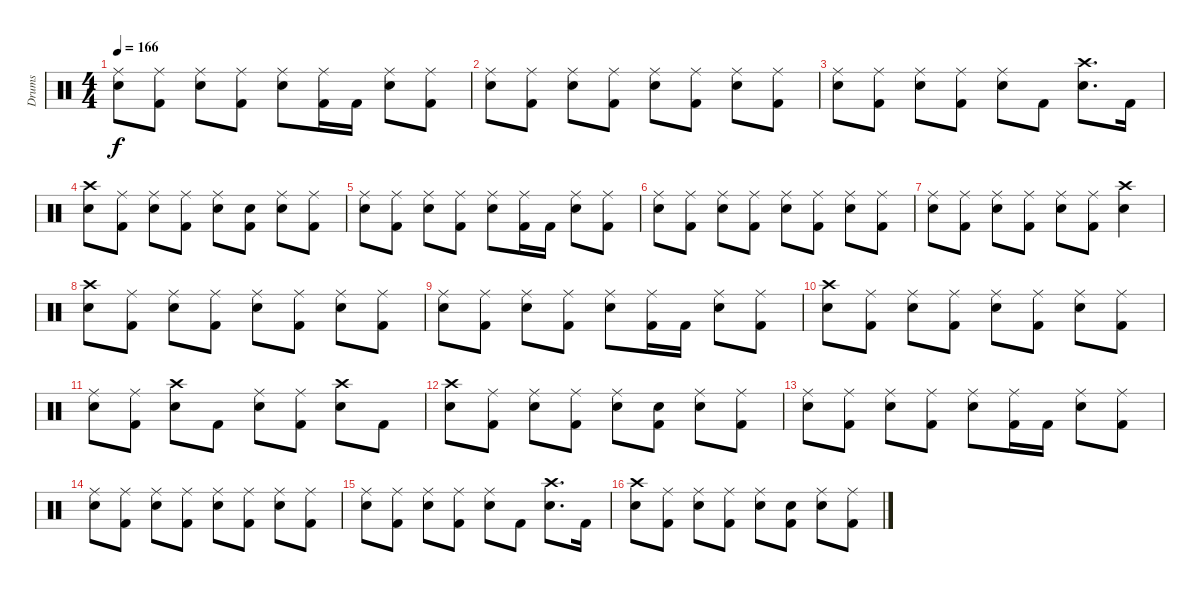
\track ("Drums" "Drums") {instrument percussion}
\staff {score}
\articulation defaults
\ts (4 4)
\tempo 166
\clef neutral
\ks c
("Ride (middle)" "Snare (hit) 2").8{dy f} ("Ride (middle)" "Kick (hit) 2").8 ("Ride (middle)" "Snare (hit) 2").8 ("Ride (middle)" "Kick (hit) 2").8 ("Ride (middle)" "Snare (hit) 2").8 ("Ride (middle)" "Kick (hit) 2").16 "Kick (hit) 2".16 ("Ride (middle)" "Snare (hit) 2").8 ("Ride (middle)" "Kick (hit) 2").8 |
("Ride (middle)" "Snare (hit) 2").8 ("Ride (middle)" "Kick (hit) 2").8 ("Ride (middle)" "Snare (hit) 2").8 ("Ride (middle)" "Kick (hit) 2").8 ("Ride (middle)" "Snare (hit) 2").8 ("Ride (middle)" "Kick (hit) 2").8 ("Ride (middle)" "Snare (hit) 2").8 ("Ride (middle)" "Kick (hit) 2").8 |
("Ride (middle)" "Snare (hit) 2").8 ("Ride (middle)" "Kick (hit) 2").8 ("Ride (middle)" "Snare (hit) 2").8 ("Ride (middle)" "Kick (hit) 2").8 ("Ride (middle)" "Snare (hit) 2").8 "Kick (hit) 2".8 ("Crash high (hit)" "Snare (hit) 2").8{d} "Kick (hit) 2".16 |
("Crash high (hit)" "Snare (hit) 2").8 ("Ride (middle)" "Kick (hit) 2").8 ("Ride (middle)" "Snare (hit) 2").8 ("Ride (middle)" "Kick (hit) 2").8 ("Ride (middle)" "Snare (hit) 2").8 ("Snare (hit)" "Kick (hit) 2").8 ("Ride (middle)" "Snare (hit) 2").8 ("Ride (middle)" "Kick (hit) 2").8 |
("Ride (middle)" "Snare (hit) 2").8 ("Ride (middle)" "Kick (hit) 2").8 ("Ride (middle)" "Snare (hit) 2").8 ("Ride (middle)" "Kick (hit) 2").8 ("Ride (middle)" "Snare (hit) 2").8 ("Ride (middle)" "Kick (hit) 2").16 "Kick (hit) 2".16 ("Ride (middle)" "Snare (hit) 2").8 ("Ride (middle)" "Kick (hit) 2").8 |
("Ride (middle)" "Snare (hit) 2").8 ("Ride (middle)" "Kick (hit) 2").8 ("Ride (middle)" "Snare (hit) 2").8 ("Ride (middle)" "Kick (hit) 2").8 ("Ride (middle)" "Snare (hit) 2").8 ("Ride (middle)" "Kick (hit) 2").8 ("Ride (middle)" "Snare (hit) 2").8 ("Ride (middle)" "Kick (hit) 2").8 |
("Ride (middle)" "Snare (hit) 2").8 ("Ride (middle)" "Kick (hit) 2").8 ("Ride (middle)" "Snare (hit) 2").8 ("Ride (middle)" "Kick (hit) 2").8 ("Ride (middle)" "Snare (hit) 2").8 ("Ride (middle)" "Kick (hit) 2").8 ("Crash high (hit)" "Snare (hit) 2").4 |
("Crash high (hit)" "Snare (hit) 2").8 ("Ride (middle)" "Kick (hit) 2").8 ("Ride (middle)" "Snare (hit) 2").8 ("Ride (middle)" "Kick (hit) 2").8 ("Ride (middle)" "Snare (hit) 2").8 ("Ride (middle)" "Kick (hit) 2").8 ("Ride (middle)" "Snare (hit) 2").8 ("Ride (middle)" "Kick (hit) 2").8 |
("Ride (middle)" "Snare (hit) 2").8 ("Ride (middle)" "Kick (hit) 2").8 ("Ride (middle)" "Snare (hit) 2").8 ("Ride (middle)" "Kick (hit) 2").8 ("Ride (middle)" "Snare (hit) 2").8 ("Ride (middle)" "Kick (hit) 2").16 "Kick (hit) 2".16 ("Ride (middle)" "Snare (hit) 2").8 ("Ride (middle)" "Kick (hit) 2").8 |
("Crash high (hit)" "Snare (hit) 2").8 ("Ride (middle)" "Kick (hit) 2").8 ("Ride (middle)" "Snare (hit) 2").8 ("Ride (middle)" "Kick (hit) 2").8 ("Ride (middle)" "Snare (hit) 2").8 ("Ride (middle)" "Kick (hit) 2").8 ("Ride (middle)" "Snare (hit) 2").8 ("Ride (middle)" "Kick (hit) 2").8 |
("Ride (middle)" "Snare (hit) 2").8 ("Ride (middle)" "Kick (hit) 2").8 ("Crash high (hit)" "Snare (hit) 2").8 "Kick (hit) 2".8 ("Ride (middle)" "Snare (hit) 2").8 ("Ride (middle)" "Kick (hit) 2").8 ("Crash high (hit)" "Snare (hit) 2").8 "Kick (hit) 2".8 |
("Crash high (hit)" "Snare (hit) 2").8 ("Ride (middle)" "Kick (hit) 2").8 ("Ride (middle)" "Snare (hit) 2").8 ("Ride (middle)" "Kick (hit) 2").8 ("Ride (middle)" "Snare (hit) 2").8 ("Snare (hit)" "Kick (hit) 2").8 ("Ride (middle)" "Snare (hit) 2").8 ("Ride (middle)" "Kick (hit) 2").8 |
("Ride (middle)" "Snare (hit) 2").8 ("Ride (middle)" "Kick (hit) 2").8 ("Ride (middle)" "Snare (hit) 2").8 ("Ride (middle)" "Kick (hit) 2").8 ("Ride (middle)" "Snare (hit) 2").8 ("Ride (middle)" "Kick (hit) 2").16 "Kick (hit) 2".16 ("Ride (middle)" "Snare (hit) 2").8 ("Ride (middle)" "Kick (hit) 2").8 |
("Ride (middle)" "Snare (hit) 2").8 ("Ride (middle)" "Kick (hit) 2").8 ("Ride (middle)" "Snare (hit) 2").8 ("Ride (middle)" "Kick (hit) 2").8 ("Ride (middle)" "Snare (hit) 2").8 ("Ride (middle)" "Kick (hit) 2").8 ("Ride (middle)" "Snare (hit) 2").8 ("Ride (middle)" "Kick (hit) 2").8 |
("Ride (middle)" "Snare (hit) 2").8 ("Ride (middle)" "Kick (hit) 2").8 ("Ride (middle)" "Snare (hit) 2").8 ("Ride (middle)" "Kick (hit) 2").8 ("Ride (middle)" "Snare (hit) 2").8 "Kick (hit) 2".8 ("Crash high (hit)" "Snare (hit) 2").8{d} "Kick (hit) 2".16 |
("Crash high (hit)" "Snare (hit) 2").8 ("Ride (middle)" "Kick (hit) 2").8 ("Ride (middle)" "Snare (hit) 2").8 ("Ride (middle)" "Kick (hit) 2").8 ("Ride (middle)" "Snare (hit) 2").8 ("Snare (hit)" "Kick (hit) 2").8 ("Ride (middle)" "Snare (hit) 2").8 ("Ride (middle)" "Kick (hit) 2").8
